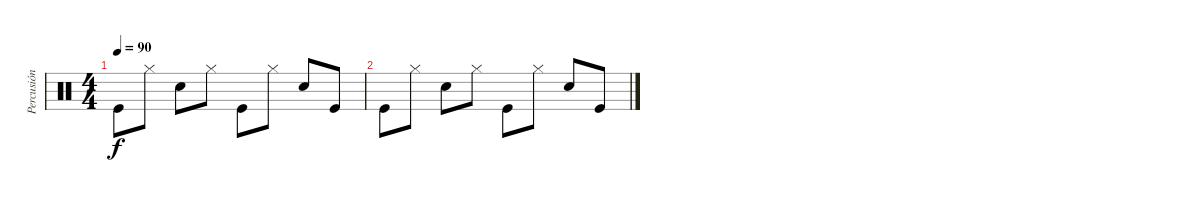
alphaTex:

\track ("Percusión" "Percusión") {instrument percussion}
\staff {score}
\articulation defaults
\ts (4 4)
\tempo 90
\clef neutral
\ks c "Kick (hit)".8{dy f} "Hi-Hat (closed)".8 "Snare (hit) 2".8 "Hi-Hat (closed)".8 "Kick (hit)".8 "Hi-Hat (closed)".8 "Snare (hit) 2".8 "Kick (hit)".8
|
"Kick (hit)".8 "Hi-Hat (closed)".8 "Snare (hit) 2".8 "Hi-Hat (closed)".8 "Kick (hit)".8 "Hi-Hat (closed)".8 "Snare (hit) 2".8 "Kick (hit)".8
